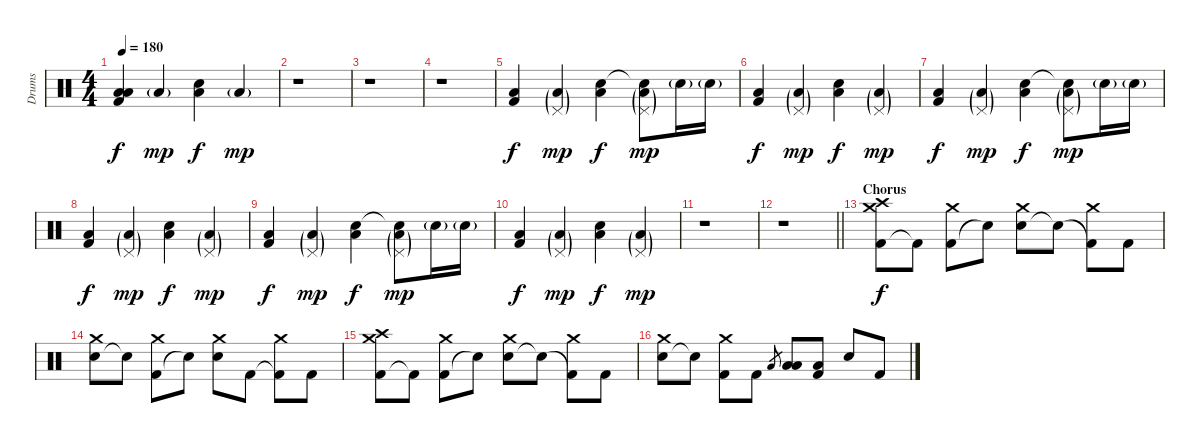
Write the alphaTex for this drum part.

\track ("Drums" "Drums") {instrument percussion}
\staff {score}
\articulation defaults
\ts (4 4)
\tempo 180
\clef neutral
\ks c
("Kick (hit) 2" "Low Tom (hit)" "Low Floor Tom (hit)").4{dy f} "Low Floor Tom (hit)"{g}.4{dy mp} ("Electric Snare (hit)" "Low Floor Tom (hit)").4{dy f} "Low Floor Tom (hit)"{g}.4{dy mp} |
r.1 |
r.1 |
r.1 |
("Kick (hit) 2" "Low Floor Tom (hit)").4{dy f} ("Low Floor Tom (hit)"{g} "Pedal Hi-Hat (hit)"{g}).4{dy mp} ("Electric Snare (hit)" "Low Floor Tom (hit)").4{dy f} ("Snare (hit)"{t} "Low Floor Tom (hit)"{g} "Pedal Hi-Hat (hit)"{g}).8{dy mp} "Electric Snare (hit)"{g}.16 "Electric Snare (hit)"{g}.16 |
("Kick (hit) 2" "Low Floor Tom (hit)").4{dy f} ("Low Floor Tom (hit)"{g} "Pedal Hi-Hat (hit)"{g}).4{dy mp} ("Electric Snare (hit)" "Low Floor Tom (hit)").4{dy f} ("Low Floor Tom (hit)"{g} "Pedal Hi-Hat (hit)"{g}).4{dy mp} |
("Kick (hit) 2" "Low Floor Tom (hit)").4{dy f} ("Low Floor Tom (hit)"{g} "Pedal Hi-Hat (hit)"{g}).4{dy mp} ("Electric Snare (hit)" "Low Floor Tom (hit)").4{dy f} ("Snare (hit)"{t} "Low Floor Tom (hit)"{g} "Pedal Hi-Hat (hit)"{g}).8{dy mp} "Electric Snare (hit)"{g}.16 "Electric Snare (hit)"{g}.16 |
("Kick (hit) 2" "Low Floor Tom (hit)").4{dy f} ("Low Floor Tom (hit)"{g} "Pedal Hi-Hat (hit)"{g}).4{dy mp} ("Electric Snare (hit)" "Low Floor Tom (hit)").4{dy f} ("Low Floor Tom (hit)"{g} "Pedal Hi-Hat (hit)"{g}).4{dy mp} |
("Kick (hit) 2" "Low Floor Tom (hit)").4{dy f} ("Low Floor Tom (hit)"{g} "Pedal Hi-Hat (hit)"{g}).4{dy mp} ("Electric Snare (hit)" "Low Floor Tom (hit)").4{dy f} ("Snare (hit)"{t} "Low Floor Tom (hit)"{g} "Pedal Hi-Hat (hit)"{g}).8{dy mp} "Electric Snare (hit)"{g}.16 "Electric Snare (hit)"{g}.16 |
("Kick (hit) 2" "Low Floor Tom (hit)").4{dy f} ("Low Floor Tom (hit)"{g} "Pedal Hi-Hat (hit)"{g}).4{dy mp} ("Electric Snare (hit)" "Low Floor Tom (hit)").4{dy f} ("Low Floor Tom (hit)"{g} "Pedal Hi-Hat (hit)"{g}).4{dy mp} |
r.1 |
\barLineRight lightlight
r.1 |
\section ("" "Chorus")
("Kick (hit) 2" "Crash medium (hit)" "Crash high (hit)").8{dy f} "Kick (hit) 2"{t}.8 ("Kick (hit) 2" "Crash medium (hit)").8 "Snare (hit)"{t}.8 ("Electric Snare (hit)" "Crash medium (hit)").8 "Snare (hit)"{t}.8 ("Kick (hit) 2"{t} "Crash medium (hit)").8 "Kick (hit) 2".8 |
("Electric Snare (hit)" "Crash medium (hit)").8 "Snare (hit)"{t}.8 ("Kick (hit) 2" "Crash medium (hit)").8 "Snare (hit)"{t}.8 ("Electric Snare (hit)" "Crash medium (hit)").8 "Kick (hit) 2".8 ("Kick (hit) 2"{t} "Crash medium (hit)").8 "Kick (hit) 2".8 |
("Kick (hit) 2" "Crash medium (hit)" "Crash high (hit)").8 "Kick (hit) 2"{t}.8 ("Kick (hit) 2" "Crash medium (hit)").8 "Snare (hit)"{t}.8 ("Electric Snare (hit)" "Crash medium (hit)").8 "Snare (hit)"{t}.8 ("Kick (hit) 2"{t} "Crash medium (hit)").8 "Kick (hit) 2".8 |
("Electric Snare (hit)" "Crash medium (hit)").8 "Snare (hit)"{t}.8 ("Kick (hit) 2" "Crash medium (hit)").8 "Kick (hit) 2".8 "Low Tom (hit)".8{gr} ("Low Tom (hit)" "Low Floor Tom (hit)").8 ("Kick (hit) 2" "Low Floor Tom (hit)").8 "Electric Snare (hit)".8 "Kick (hit) 2".8
